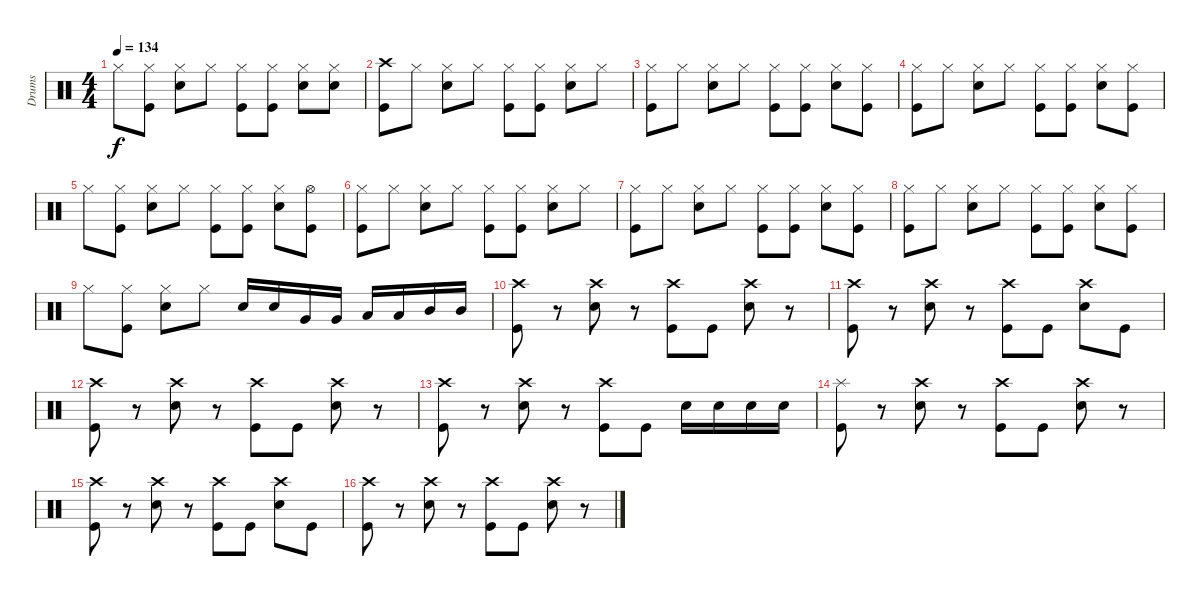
\track ("Drums" "Drums") {instrument percussion}
\staff {score}
\articulation defaults
\ts (4 4)
\tempo 134
\clef neutral
\ks c "Hi-Hat (closed)".8{dy f}
("Hi-Hat (closed)" "Kick (hit)").8 ("Snare (hit) 2" "Hi-Hat (closed)").8 "Hi-Hat (closed)".8 ("Hi-Hat (closed)" "Kick (hit)").8 ("Kick (hit)" "Hi-Hat (closed)").8 ("Snare (hit) 2" "Hi-Hat (closed)").8 ("Snare (hit) 2" "Hi-Hat (closed)").8 |
("Kick (hit)" "Crash high (hit)").8 "Hi-Hat (closed)".8 ("Snare (hit) 2" "Hi-Hat (closed)").8 "Hi-Hat (closed)".8 ("Kick (hit)" "Hi-Hat (closed)").8 ("Hi-Hat (closed)" "Kick (hit)").8 ("Hi-Hat (closed)" "Snare (hit) 2").8 "Hi-Hat (closed)".8 |
("Kick (hit)" "Hi-Hat (closed)").8 "Hi-Hat (closed)".8 ("Snare (hit) 2" "Hi-Hat (closed)").8 "Hi-Hat (closed)".8 ("Hi-Hat (closed)" "Kick (hit)").8 ("Hi-Hat (closed)" "Kick (hit)").8 ("Hi-Hat (closed)" "Snare (hit) 2").8 ("Hi-Hat (closed)" "Kick (hit)").8 |
("Hi-Hat (closed)" "Kick (hit)").8 "Hi-Hat (closed)".8 ("Hi-Hat (closed)" "Snare (hit) 2").8 "Hi-Hat (closed)".8 ("Hi-Hat (closed)" "Kick (hit)").8 ("Hi-Hat (closed)" "Kick (hit)").8 ("Snare (hit) 2" "Hi-Hat (closed)").8 ("Kick (hit)" "Hi-Hat (closed)").8 |
"Hi-Hat (closed)".8 ("Kick (hit)" "Hi-Hat (closed)").8 ("Hi-Hat (closed)" "Snare (hit) 2").8 "Hi-Hat (closed)".8 ("Kick (hit)" "Hi-Hat (closed)").8 ("Hi-Hat (closed)" "Kick (hit)").8 ("Snare (hit) 2" "Hi-Hat (closed)").8 ("Hi-Hat (open)" "Kick (hit)").8 |
("Hi-Hat (closed)" "Kick (hit)").8 "Hi-Hat (closed)".8 ("Snare (hit) 2" "Hi-Hat (closed)").8 "Hi-Hat (closed)".8 ("Kick (hit)" "Hi-Hat (closed)").8 ("Hi-Hat (closed)" "Kick (hit)").8 ("Hi-Hat (closed)" "Snare (hit) 2").8 "Hi-Hat (closed)".8 |
("Kick (hit)" "Hi-Hat (closed)").8 "Hi-Hat (closed)".8 ("Snare (hit) 2" "Hi-Hat (closed)").8 "Hi-Hat (closed)".8 ("Hi-Hat (closed)" "Kick (hit)").8 ("Hi-Hat (closed)" "Kick (hit)").8 ("Hi-Hat (closed)" "Snare (hit) 2").8 ("Hi-Hat (closed)" "Kick (hit)").8 |
("Hi-Hat (closed)" "Kick (hit)").8 "Hi-Hat (closed)".8 ("Hi-Hat (closed)" "Snare (hit) 2").8 "Hi-Hat (closed)".8 ("Hi-Hat (closed)" "Kick (hit)").8 ("Hi-Hat (closed)" "Kick (hit)").8 ("Snare (hit) 2" "Hi-Hat (closed)").8 ("Kick (hit)" "Hi-Hat (closed)").8 |
"Hi-Hat (closed)".8 ("Kick (hit)" "Hi-Hat (closed)").8 ("Hi-Hat (closed)" "Snare (hit) 2").8 "Hi-Hat (closed)".8 "Snare (hit) 2".16 "Snare (hit) 2".16 "Very Low Tom (hit)".16 "Very Low Tom (hit)".16 "Low Tom (hit)".16 "Low Tom (hit)".16 "Mid Tom (hit)".16 "Mid Tom (hit)".16 |
("Crash high (hit)" "Kick (hit)").8 r.8 ("Snare (hit) 2" "Crash high (hit)").8 r.8 ("Kick (hit)" "Crash high (hit)").8 "Kick (hit)".8 ("Snare (hit) 2" "Crash high (hit)").8 r.8 |
("Kick (hit)" "Crash high (hit)").8 r.8 ("Snare (hit) 2" "Crash high (hit)").8 r.8 ("Kick (hit)" "Crash high (hit)").8 "Kick (hit)".8 ("Snare (hit) 2" "Crash high (hit)").8 "Kick (hit)".8 |
("Kick (hit)" "Crash high (hit)").8 r.8 ("Snare (hit) 2" "Crash high (hit)").8 r.8 ("Kick (hit)" "Crash high (hit)").8 "Kick (hit)".8 ("Snare (hit) 2" "Crash high (hit)").8 r.8 |
("Kick (hit)" "Crash high (hit)").8 r.8 ("Snare (hit) 2" "Crash high (hit)").8 r.8 ("Kick (hit)" "Crash high (hit)").8 "Kick (hit)".8 "Snare (hit) 2".16 "Snare (hit) 2".16 "Snare (hit) 2".16 "Snare (hit) 2".16 |
("Splash (hit)" "Kick (hit)").8 r.8 ("Snare (hit) 2" "Crash high (hit)").8 r.8 ("Kick (hit)" "Crash high (hit)").8 "Kick (hit)".8 ("Snare (hit) 2" "Crash high (hit)").8 r.8 |
("Kick (hit)" "Crash high (hit)").8 r.8 ("Snare (hit) 2" "Crash high (hit)").8 r.8 ("Kick (hit)" "Crash high (hit)").8 "Kick (hit)".8 ("Snare (hit) 2" "Crash high (hit)").8 "Kick (hit)".8 |
("Kick (hit)" "Crash high (hit)").8 r.8 ("Snare (hit) 2" "Crash high (hit)").8 r.8 ("Kick (hit)" "Crash high (hit)").8 "Kick (hit)".8 ("Snare (hit) 2" "Crash high (hit)").8 r.8
